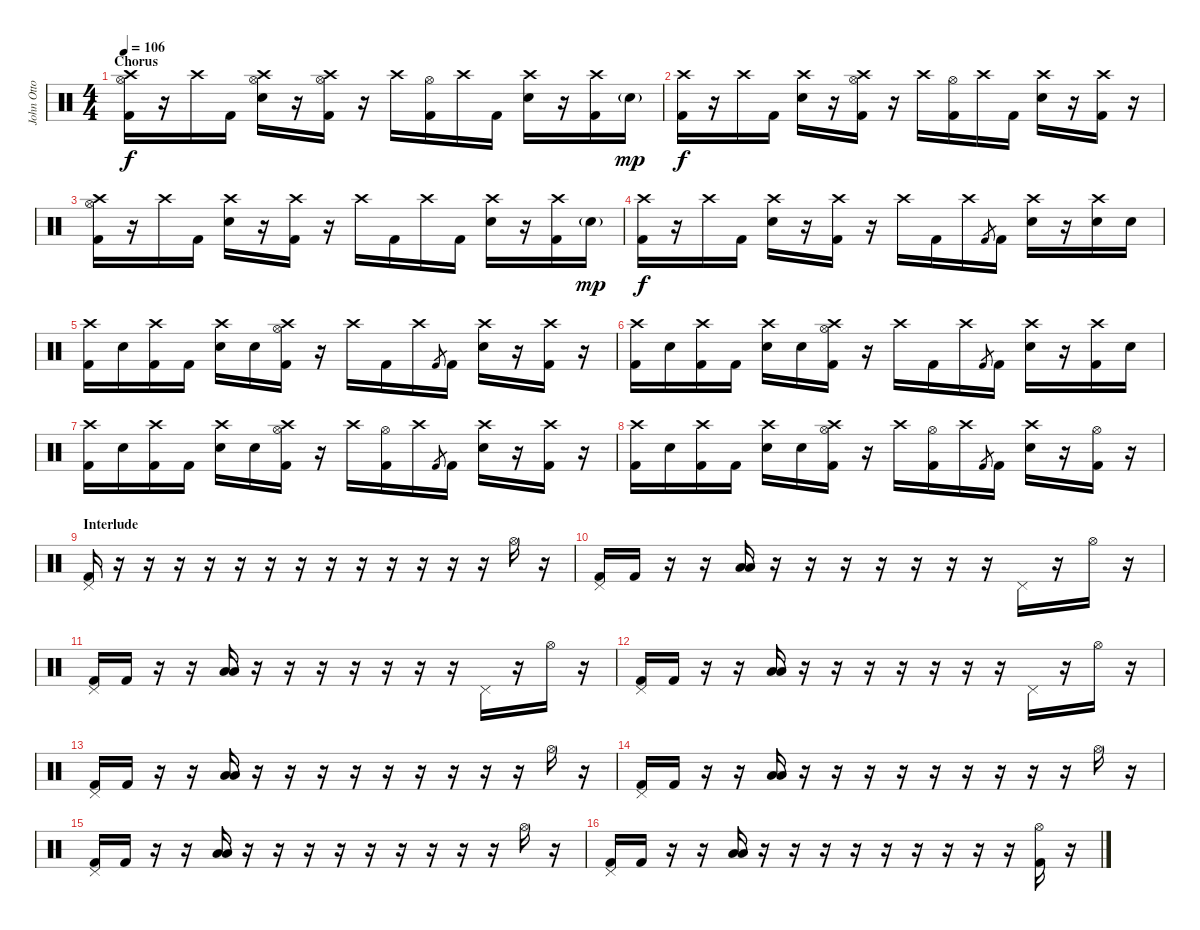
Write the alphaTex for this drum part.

\track ("John Otto - Drums" "John Otto ") {instrument percussion}
\staff {score}
\articulation defaults
\ts (4 4)
\section ("" "Chorus")
\tempo 106
\clef neutral
\ks c
("Crash high (hit)" "Hi-Hat (open)" "Kick (hit) 2").16{dy f} r.16 "Crash high (hit)".16 "Kick (hit) 2".16 ("Crash high (hit)" "Hi-Hat (open)" "Snare (hit) 2").16 r.16 ("Crash high (hit)" "Hi-Hat (open)" "Kick (hit) 2").16 r.16 "Crash high (hit)".16 ("Hi-Hat (open)" "Kick (hit) 2").16 "Crash high (hit)".16 "Kick (hit) 2".16 ("Crash high (hit)" "Snare (hit) 2").16 r.16 ("Crash high (hit)" "Kick (hit) 2").16 "Snare (hit) 2"{g}.16{dy mp} |
("Crash high (hit)" "Kick (hit) 2").16{dy f} r.16 "Crash high (hit)".16 "Kick (hit) 2".16 ("Crash high (hit)" "Snare (hit) 2").16 r.16 ("Crash high (hit)" "Hi-Hat (open)" "Kick (hit) 2").16 r.16 "Crash high (hit)".16 ("Hi-Hat (open)" "Kick (hit) 2").16 "Crash high (hit)".16 "Kick (hit) 2".16 ("Crash high (hit)" "Snare (hit) 2").16 r.16 ("Crash high (hit)" "Kick (hit) 2").16 r.16 |
("Crash high (hit)" "Hi-Hat (open)" "Kick (hit) 2").16 r.16 "Crash high (hit)".16 "Kick (hit) 2".16 ("Crash high (hit)" "Snare (hit) 2").16 r.16 ("Crash high (hit)" "Kick (hit) 2").16 r.16 "Crash high (hit)".16 "Kick (hit) 2".16 "Crash high (hit)".16 "Kick (hit) 2".16 ("Crash high (hit)" "Snare (hit) 2").16 r.16 ("Crash high (hit)" "Kick (hit) 2").16 "Snare (hit) 2"{g}.16{dy mp} |
("Crash high (hit)" "Kick (hit) 2").16{dy f} r.16 "Crash high (hit)".16 "Kick (hit) 2".16 ("Crash high (hit)" "Snare (hit) 2").16 r.16 ("Crash high (hit)" "Kick (hit) 2").16 r.16 "Crash high (hit)".16 "Kick (hit) 2".16 "Crash high (hit)".16 "Kick (hit) 2".8{gr} "Kick (hit) 2".16 ("Crash high (hit)" "Snare (hit) 2").16 r.16 ("Crash high (hit)" "Snare (hit) 2").16 "Snare (hit) 2".16 |
("Crash high (hit)" "Kick (hit) 2").16 "Snare (hit) 2".16 ("Crash high (hit)" "Kick (hit) 2").16 "Kick (hit) 2".16 ("Crash high (hit)" "Snare (hit) 2").16 "Snare (hit) 2".16 ("Crash high (hit)" "Hi-Hat (open)" "Kick (hit) 2").16 r.16 "Crash high (hit)".16 "Kick (hit) 2".16 "Crash high (hit)".16 "Kick (hit) 2".8{gr} "Kick (hit) 2".16 ("Crash high (hit)" "Snare (hit) 2").16 r.16 ("Crash high (hit)" "Kick (hit) 2").16 r.16 |
("Crash high (hit)" "Kick (hit) 2").16 "Snare (hit) 2".16 ("Crash high (hit)" "Kick (hit) 2").16 "Kick (hit) 2".16 ("Crash high (hit)" "Snare (hit) 2").16 "Snare (hit) 2".16 ("Crash high (hit)" "Hi-Hat (open)" "Kick (hit) 2").16 r.16 "Crash high (hit)".16 "Kick (hit) 2".16 "Crash high (hit)".16 "Kick (hit) 2".8{gr} "Kick (hit) 2".16 ("Crash high (hit)" "Snare (hit) 2").16 r.16 ("Crash high (hit)" "Kick (hit) 2").16 "Snare (hit) 2".16 |
("Crash high (hit)" "Kick (hit) 2").16 "Snare (hit) 2".16 ("Crash high (hit)" "Kick (hit) 2").16 "Kick (hit) 2".16 ("Crash high (hit)" "Snare (hit) 2").16 "Snare (hit) 2".16 ("Crash high (hit)" "Hi-Hat (open)" "Kick (hit) 2").16 r.16 "Crash high (hit)".16 ("Hi-Hat (open)" "Kick (hit) 2").16 "Crash high (hit)".16 "Kick (hit) 2".8{gr} "Kick (hit) 2".16 ("Crash high (hit)" "Snare (hit) 2").16 r.16 ("Crash high (hit)" "Kick (hit) 2").16 r.16 |
("Crash high (hit)" "Kick (hit) 2").16 "Snare (hit) 2".16 ("Crash high (hit)" "Kick (hit) 2").16 "Kick (hit) 2".16 ("Crash high (hit)" "Snare (hit) 2").16 "Snare (hit) 2".16 ("Crash high (hit)" "Hi-Hat (open)" "Kick (hit) 2").16 r.16 "Crash high (hit)".16 ("Hi-Hat (open)" "Kick (hit) 2").16 "Crash high (hit)".16 "Kick (hit) 2".8{gr} "Kick (hit) 2".16 ("Crash high (hit)" "Snare (hit) 2").16 r.16 ("Hi-Hat (open)" "Kick (hit) 2").16 r.16 |
\section ("" "Interlude")
("Kick (hit) 2" "Pedal Hi-Hat (hit)").16 r.16 r.16 r.16 r.16 r.16 r.16 r.16 r.16 r.16 r.16 r.16 r.16 r.16 "Hi-Hat (open)".16 r.16 |
("Kick (hit) 2" "Pedal Hi-Hat (hit)").16 "Kick (hit) 2".16 r.16 r.16 ("Low Tom (hit)" "Low Floor Tom (hit)").16 r.16 r.16 r.16 r.16 r.16 r.16 r.16 "Pedal Hi-Hat (hit)".16 r.16 "Hi-Hat (open)".16 r.16 |
("Kick (hit) 2" "Pedal Hi-Hat (hit)").16 "Kick (hit) 2".16 r.16 r.16 ("Low Tom (hit)" "Low Floor Tom (hit)").16 r.16 r.16 r.16 r.16 r.16 r.16 r.16 "Pedal Hi-Hat (hit)".16 r.16 "Hi-Hat (open)".16 r.16 |
("Kick (hit) 2" "Pedal Hi-Hat (hit)").16 "Kick (hit) 2".16 r.16 r.16 ("Low Tom (hit)" "Low Floor Tom (hit)").16 r.16 r.16 r.16 r.16 r.16 r.16 r.16 "Pedal Hi-Hat (hit)".16 r.16 "Hi-Hat (open)".16 r.16 |
("Kick (hit) 2" "Pedal Hi-Hat (hit)").16 "Kick (hit) 2".16 r.16 r.16 ("Low Tom (hit)" "Low Floor Tom (hit)").16 r.16 r.16 r.16 r.16 r.16 r.16 r.16 r.16 r.16 "Hi-Hat (open)".16 r.16 |
("Kick (hit) 2" "Pedal Hi-Hat (hit)").16 "Kick (hit) 2".16 r.16 r.16 ("Low Tom (hit)" "Low Floor Tom (hit)").16 r.16 r.16 r.16 r.16 r.16 r.16 r.16 r.16 r.16 "Hi-Hat (open)".16 r.16 |
("Kick (hit) 2" "Pedal Hi-Hat (hit)").16 "Kick (hit) 2".16 r.16 r.16 ("Low Tom (hit)" "Low Floor Tom (hit)").16 r.16 r.16 r.16 r.16 r.16 r.16 r.16 r.16 r.16 "Hi-Hat (open)".16 r.16 |
("Kick (hit) 2" "Pedal Hi-Hat (hit)").16 "Kick (hit) 2".16 r.16 r.16 ("Low Tom (hit)" "Low Floor Tom (hit)").16 r.16 r.16 r.16 r.16 r.16 r.16 r.16 r.16 r.16 ("Hi-Hat (open)" "Kick (hit) 2").16 r.16
